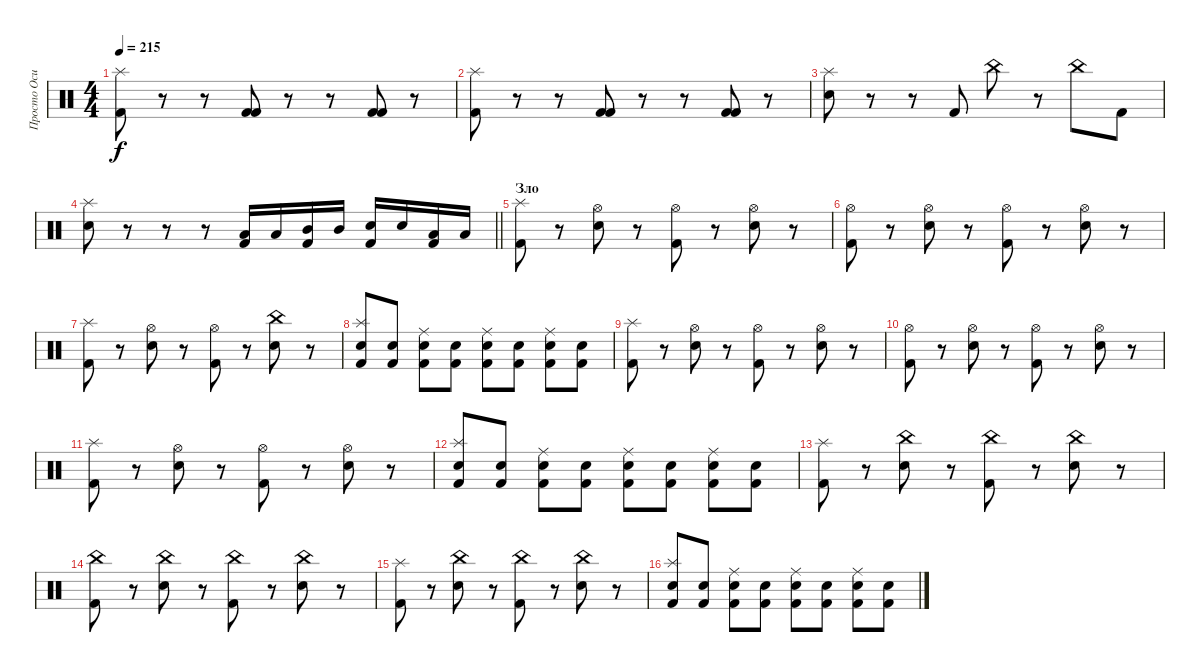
\track ("Просто Осип" "Просто Оси") {instrument percussion}
\staff {score}
\articulation defaults
\ts (4 4)
\tempo 215
\clef neutral
\ks c
("Kick (hit) 2" "Splash (hit)").8{dy f} r.8 r.8 ("Kick (hit) 2" "Kick (hit) 2").8 r.8 r.8 ("Kick (hit) 2" "Kick (hit) 2").8 r.8 |
("Kick (hit) 2" "Splash (hit)").8 r.8 r.8 ("Kick (hit) 2" "Kick (hit) 2").8 r.8 r.8 ("Kick (hit) 2" "Kick (hit) 2").8 r.8 |
("Splash (hit)" "Electric Snare (hit)").8 r.8 r.8 "Kick (hit) 2".8 "China (hit)".8 r.8 "China (hit)".8 "Kick (hit) 2".8 |
\barLineRight lightlight
("Splash (hit)" "Electric Snare (hit)").8 r.8 r.8 r.8 ("Kick (hit) 2" "Low Tom (hit)").16 "Low Tom (hit)".16 ("Kick (hit) 2" "Mid Tom (hit)").16 "Mid Tom (hit)".16 ("Kick (hit) 2" "Electric Snare (hit)").16 "Electric Snare (hit)".16 ("Kick (hit) 2" "Low Tom (hit)").16 "Low Tom (hit)".16 |
\section ("" "Зло")
("Kick (hit) 2" "Splash (hit)").8 r.8 ("Electric Snare (hit)" "Hi-Hat (open)").8 r.8 ("Kick (hit) 2" "Hi-Hat (open)").8 r.8 ("Electric Snare (hit)" "Hi-Hat (open)").8 r.8 |
("Kick (hit) 2" "Hi-Hat (open)").8 r.8 ("Electric Snare (hit)" "Hi-Hat (open)").8 r.8 ("Kick (hit) 2" "Hi-Hat (open)").8 r.8 ("Electric Snare (hit)" "Hi-Hat (open)").8 r.8 |
("Kick (hit) 2" "Splash (hit)").8 r.8 ("Electric Snare (hit)" "Hi-Hat (open)").8 r.8 ("Kick (hit) 2" "Hi-Hat (open)").8 r.8 ("Electric Snare (hit)" "China (hit)").8 r.8 |
("Kick (hit) 2" "Electric Snare (hit)" "Splash (hit)").8 ("Kick (hit) 2" "Electric Snare (hit)").8 ("Kick (hit) 2" "Electric Snare (hit)" "Ride (middle)").8 ("Kick (hit) 2" "Electric Snare (hit)").8 ("Kick (hit) 2" "Electric Snare (hit)" "Ride (middle)").8 ("Kick (hit) 2" "Electric Snare (hit)").8 ("Kick (hit) 2" "Electric Snare (hit)" "Ride (middle)").8 ("Kick (hit) 2" "Electric Snare (hit)").8 |
("Kick (hit) 2" "Splash (hit)").8 r.8 ("Electric Snare (hit)" "Hi-Hat (open)").8 r.8 ("Kick (hit) 2" "Hi-Hat (open)").8 r.8 ("Electric Snare (hit)" "Hi-Hat (open)").8 r.8 |
("Kick (hit) 2" "Hi-Hat (open)").8 r.8 ("Electric Snare (hit)" "Hi-Hat (open)").8 r.8 ("Kick (hit) 2" "Hi-Hat (open)").8 r.8 ("Electric Snare (hit)" "Hi-Hat (open)").8 r.8 |
("Kick (hit) 2" "Splash (hit)").8 r.8 ("Electric Snare (hit)" "Hi-Hat (open)").8 r.8 ("Kick (hit) 2" "Hi-Hat (open)").8 r.8 ("Electric Snare (hit)" "Hi-Hat (open)").8 r.8 |
("Kick (hit) 2" "Electric Snare (hit)" "Splash (hit)").8 ("Kick (hit) 2" "Electric Snare (hit)").8 ("Kick (hit) 2" "Electric Snare (hit)" "Ride (middle)").8 ("Kick (hit) 2" "Electric Snare (hit)").8 ("Kick (hit) 2" "Electric Snare (hit)" "Ride (middle)").8 ("Kick (hit) 2" "Electric Snare (hit)").8 ("Kick (hit) 2" "Electric Snare (hit)" "Ride (middle)").8 ("Kick (hit) 2" "Electric Snare (hit)").8 |
("Kick (hit) 2" "Splash (hit)").8 r.8 ("Electric Snare (hit)" "China (hit)").8 r.8 ("Kick (hit) 2" "China (hit)").8 r.8 ("Electric Snare (hit)" "China (hit)").8 r.8 |
("Kick (hit) 2" "China (hit)").8 r.8 ("Electric Snare (hit)" "China (hit)").8 r.8 ("Kick (hit) 2" "China (hit)").8 r.8 ("Electric Snare (hit)" "China (hit)").8 r.8 |
("Kick (hit) 2" "Splash (hit)").8 r.8 ("Electric Snare (hit)" "China (hit)").8 r.8 ("Kick (hit) 2" "China (hit)").8 r.8 ("Electric Snare (hit)" "China (hit)").8 r.8 |
("Kick (hit) 2" "Electric Snare (hit)" "Splash (hit)").8 ("Kick (hit) 2" "Electric Snare (hit)").8 ("Kick (hit) 2" "Electric Snare (hit)" "Ride (middle)").8 ("Kick (hit) 2" "Electric Snare (hit)").8 ("Kick (hit) 2" "Electric Snare (hit)" "Ride (middle)").8 ("Kick (hit) 2" "Electric Snare (hit)").8 ("Kick (hit) 2" "Electric Snare (hit)" "Ride (middle)").8 ("Kick (hit) 2" "Electric Snare (hit)").8
